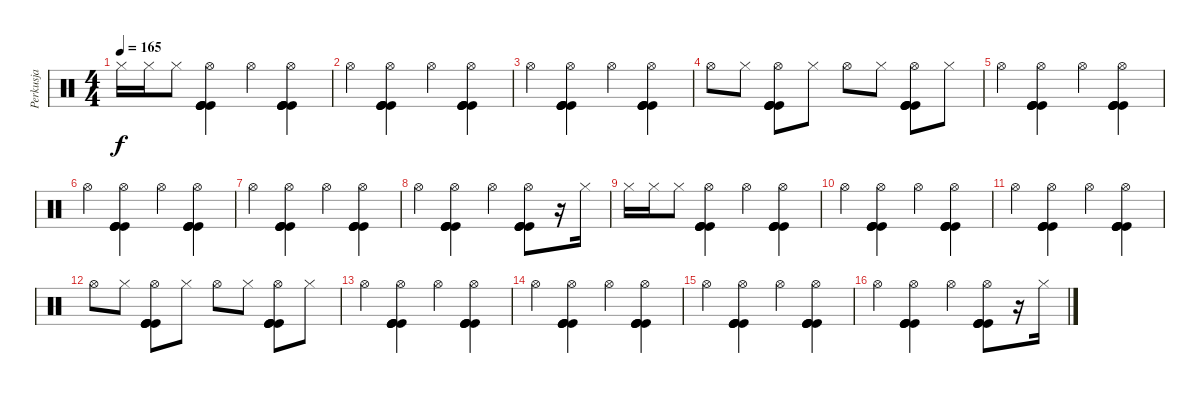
\track ("Perkusja" "Perkusja") {instrument percussion}
\staff {score}
\articulation defaults
\ts (4 4)
\tempo 165
\clef neutral
\ks c "Hi-Hat (closed)".16{dy f} "Hi-Hat (closed)".16 "Hi-Hat (closed)".8
("Hi-Hat (open)" "Kick (hit)" "Kick (hit)" "Kick (hit)" "Kick (hit)").4 "Hi-Hat (open)".4 ("Hi-Hat (open)" "Kick (hit)" "Kick (hit)" "Kick (hit)" "Kick (hit)").4 |
"Hi-Hat (open)".4 ("Hi-Hat (open)" "Kick (hit)" "Kick (hit)" "Kick (hit)" "Kick (hit)").4 "Hi-Hat (open)".4 ("Hi-Hat (open)" "Kick (hit)" "Kick (hit)" "Kick (hit)" "Kick (hit)").4 |
"Hi-Hat (open)".4 ("Hi-Hat (open)" "Kick (hit)" "Kick (hit)" "Kick (hit)" "Kick (hit)").4 "Hi-Hat (open)".4 ("Hi-Hat (open)" "Kick (hit)" "Kick (hit)" "Kick (hit)" "Kick (hit)").4 |
"Hi-Hat (open)".8 "Hi-Hat (closed)".8 ("Hi-Hat (open)" "Kick (hit)" "Kick (hit)" "Kick (hit)" "Kick (hit)").8 "Hi-Hat (closed)".8 "Hi-Hat (open)".8 "Hi-Hat (closed)".8 ("Hi-Hat (open)" "Kick (hit)" "Kick (hit)" "Kick (hit)" "Kick (hit)").8 "Hi-Hat (closed)".8 |
"Hi-Hat (open)".4 ("Hi-Hat (open)" "Kick (hit)" "Kick (hit)" "Kick (hit)" "Kick (hit)").4 "Hi-Hat (open)".4 ("Hi-Hat (open)" "Kick (hit)" "Kick (hit)" "Kick (hit)" "Kick (hit)").4 |
"Hi-Hat (open)".4 ("Hi-Hat (open)" "Kick (hit)" "Kick (hit)" "Kick (hit)" "Kick (hit)").4 "Hi-Hat (open)".4 ("Hi-Hat (open)" "Kick (hit)" "Kick (hit)" "Kick (hit)" "Kick (hit)").4 |
"Hi-Hat (open)".4 ("Hi-Hat (open)" "Kick (hit)" "Kick (hit)" "Kick (hit)" "Kick (hit)").4 "Hi-Hat (open)".4 ("Hi-Hat (open)" "Kick (hit)" "Kick (hit)" "Kick (hit)" "Kick (hit)").4 |
"Hi-Hat (open)".4 ("Hi-Hat (open)" "Kick (hit)" "Kick (hit)" "Kick (hit)" "Kick (hit)").4 "Hi-Hat (open)".4 ("Hi-Hat (open)" "Kick (hit)" "Kick (hit)" "Kick (hit)" "Kick (hit)").8 r.16 "Hi-Hat (closed)".16 |
"Hi-Hat (closed)".16 "Hi-Hat (closed)".16 "Hi-Hat (closed)".8 ("Hi-Hat (open)" "Kick (hit)" "Kick (hit)" "Kick (hit)" "Kick (hit)").4 "Hi-Hat (open)".4 ("Hi-Hat (open)" "Kick (hit)" "Kick (hit)" "Kick (hit)" "Kick (hit)").4 |
"Hi-Hat (open)".4 ("Hi-Hat (open)" "Kick (hit)" "Kick (hit)" "Kick (hit)" "Kick (hit)").4 "Hi-Hat (open)".4 ("Hi-Hat (open)" "Kick (hit)" "Kick (hit)" "Kick (hit)" "Kick (hit)").4 |
"Hi-Hat (open)".4 ("Hi-Hat (open)" "Kick (hit)" "Kick (hit)" "Kick (hit)" "Kick (hit)").4 "Hi-Hat (open)".4 ("Hi-Hat (open)" "Kick (hit)" "Kick (hit)" "Kick (hit)" "Kick (hit)").4 |
"Hi-Hat (open)".8 "Hi-Hat (closed)".8 ("Hi-Hat (open)" "Kick (hit)" "Kick (hit)" "Kick (hit)" "Kick (hit)").8 "Hi-Hat (closed)".8 "Hi-Hat (open)".8 "Hi-Hat (closed)".8 ("Hi-Hat (open)" "Kick (hit)" "Kick (hit)" "Kick (hit)" "Kick (hit)").8 "Hi-Hat (closed)".8 |
"Hi-Hat (open)".4 ("Hi-Hat (open)" "Kick (hit)" "Kick (hit)" "Kick (hit)" "Kick (hit)").4 "Hi-Hat (open)".4 ("Hi-Hat (open)" "Kick (hit)" "Kick (hit)" "Kick (hit)" "Kick (hit)").4 |
"Hi-Hat (open)".4 ("Hi-Hat (open)" "Kick (hit)" "Kick (hit)" "Kick (hit)" "Kick (hit)").4 "Hi-Hat (open)".4 ("Hi-Hat (open)" "Kick (hit)" "Kick (hit)" "Kick (hit)" "Kick (hit)").4 |
"Hi-Hat (open)".4 ("Hi-Hat (open)" "Kick (hit)" "Kick (hit)" "Kick (hit)" "Kick (hit)").4 "Hi-Hat (open)".4 ("Hi-Hat (open)" "Kick (hit)" "Kick (hit)" "Kick (hit)" "Kick (hit)").4 |
"Hi-Hat (open)".4 ("Hi-Hat (open)" "Kick (hit)" "Kick (hit)" "Kick (hit)" "Kick (hit)").4 "Hi-Hat (open)".4 ("Hi-Hat (open)" "Kick (hit)" "Kick (hit)" "Kick (hit)" "Kick (hit)").8 r.16 "Hi-Hat (closed)".16
